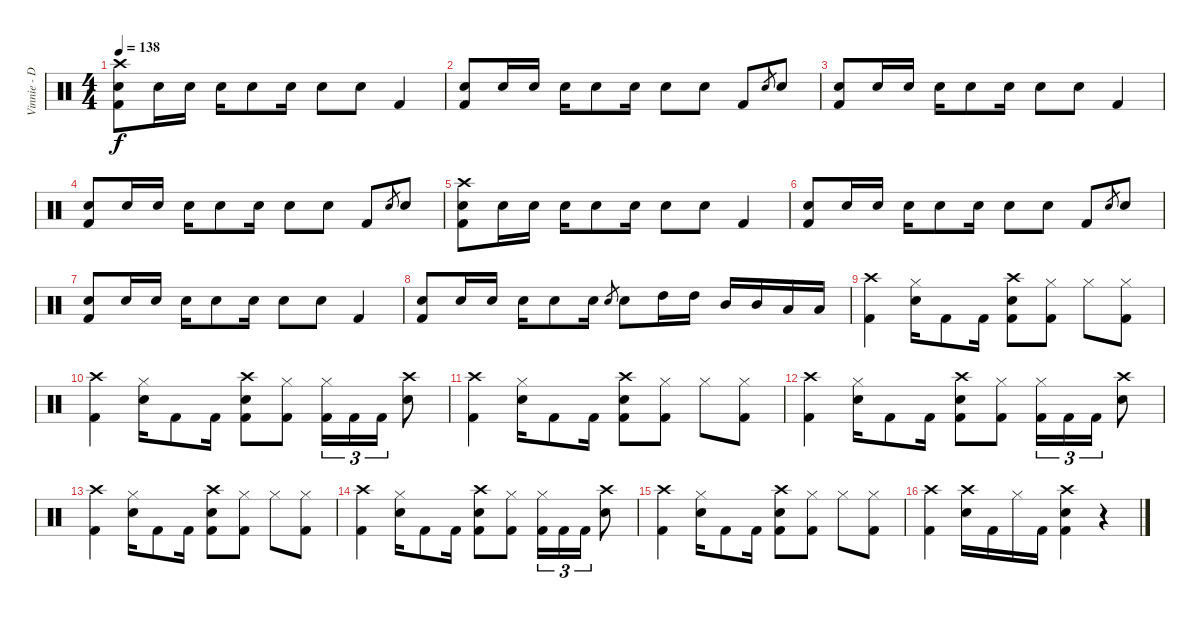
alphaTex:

\track ("Vinnie - Drums" "Vinnie - D") {instrument percussion}
\staff {score}
\articulation defaults
\ts (4 4)
\tempo 138
\clef neutral
\ks c
("Crash high (hit)" "Electric Snare (hit)" "Kick (hit) 2").8{dy f} "Electric Snare (hit)".16 "Electric Snare (hit)".16 "Electric Snare (hit)".16 "Electric Snare (hit)".8 "Electric Snare (hit)".16 "Electric Snare (hit)".8 "Electric Snare (hit)".8 "Kick (hit) 2".4 |
("Electric Snare (hit)" "Kick (hit) 2").8 "Electric Snare (hit)".16 "Electric Snare (hit)".16 "Electric Snare (hit)".16 "Electric Snare (hit)".8 "Electric Snare (hit)".16 "Electric Snare (hit)".8 "Electric Snare (hit)".8 "Kick (hit) 2".8 "Electric Snare (hit)"{sl}.8{gr} "Electric Snare (hit)".8 |
("Electric Snare (hit)" "Kick (hit) 2").8 "Electric Snare (hit)".16 "Electric Snare (hit)".16 "Electric Snare (hit)".16 "Electric Snare (hit)".8 "Electric Snare (hit)".16 "Electric Snare (hit)".8 "Electric Snare (hit)".8 "Kick (hit) 2".4 |
("Electric Snare (hit)" "Kick (hit) 2").8 "Electric Snare (hit)".16 "Electric Snare (hit)".16 "Electric Snare (hit)".16 "Electric Snare (hit)".8 "Electric Snare (hit)".16 "Electric Snare (hit)".8 "Electric Snare (hit)".8 "Kick (hit) 2".8 "Electric Snare (hit)"{sl}.8{gr} "Electric Snare (hit)".8 |
("Crash high (hit)" "Electric Snare (hit)" "Kick (hit) 2").8 "Electric Snare (hit)".16 "Electric Snare (hit)".16 "Electric Snare (hit)".16 "Electric Snare (hit)".8 "Electric Snare (hit)".16 "Electric Snare (hit)".8 "Electric Snare (hit)".8 "Kick (hit) 2".4 |
("Electric Snare (hit)" "Kick (hit) 2").8 "Electric Snare (hit)".16 "Electric Snare (hit)".16 "Electric Snare (hit)".16 "Electric Snare (hit)".8 "Electric Snare (hit)".16 "Electric Snare (hit)".8 "Electric Snare (hit)".8 "Kick (hit) 2".8 "Electric Snare (hit)"{sl}.8{gr} "Electric Snare (hit)".8 |
("Electric Snare (hit)" "Kick (hit) 2").8 "Electric Snare (hit)".16 "Electric Snare (hit)".16 "Electric Snare (hit)".16 "Electric Snare (hit)".8 "Electric Snare (hit)".16 "Electric Snare (hit)".8 "Electric Snare (hit)".8 "Kick (hit) 2".4 |
("Electric Snare (hit)" "Kick (hit) 2").8 "Electric Snare (hit)".16 "Electric Snare (hit)".16 "Electric Snare (hit)".16 "Electric Snare (hit)".8 "Electric Snare (hit)".16 "Electric Snare (hit)".8{gr} "Electric Snare (hit)".8 "High Tom (hit)".16 "High Tom (hit)".16 "Mid Tom (hit)".16 "Mid Tom (hit)".16 "Low Tom (hit)".16 "Low Tom (hit)".16 |
("Crash high (hit)" "Kick (hit) 2").4 ("Hi-Hat (closed)" "Electric Snare (hit)").16 "Kick (hit) 2".8 "Kick (hit) 2".16 ("Crash high (hit)" "Electric Snare (hit)" "Kick (hit) 2").8 ("Hi-Hat (closed)" "Kick (hit) 2").8 "Hi-Hat (closed)".8 ("Hi-Hat (closed)" "Kick (hit) 2").8 |
("Crash high (hit)" "Kick (hit) 2").4 ("Hi-Hat (closed)" "Electric Snare (hit)").16 "Kick (hit) 2".8 "Kick (hit) 2".16 ("Crash high (hit)" "Electric Snare (hit)" "Kick (hit) 2").8 ("Hi-Hat (closed)" "Kick (hit) 2").8 ("Hi-Hat (closed)" "Kick (hit) 2").16{tu (3 2)} "Kick (hit) 2".16{tu (3 2)} "Kick (hit) 2".16{tu (3 2)} ("Crash high (hit)" "Electric Snare (hit)").8 |
("Crash high (hit)" "Kick (hit) 2").4 ("Hi-Hat (closed)" "Electric Snare (hit)").16 "Kick (hit) 2".8 "Kick (hit) 2".16 ("Crash high (hit)" "Electric Snare (hit)" "Kick (hit) 2").8 ("Hi-Hat (closed)" "Kick (hit) 2").8 "Hi-Hat (closed)".8 ("Hi-Hat (closed)" "Kick (hit) 2").8 |
("Crash high (hit)" "Kick (hit) 2").4 ("Hi-Hat (closed)" "Electric Snare (hit)").16 "Kick (hit) 2".8 "Kick (hit) 2".16 ("Crash high (hit)" "Electric Snare (hit)" "Kick (hit) 2").8 ("Hi-Hat (closed)" "Kick (hit) 2").8 ("Hi-Hat (closed)" "Kick (hit) 2").16{tu (3 2)} "Kick (hit) 2".16{tu (3 2)} "Kick (hit) 2".16{tu (3 2)} ("Crash high (hit)" "Electric Snare (hit)").8 |
("Crash high (hit)" "Kick (hit) 2").4 ("Hi-Hat (closed)" "Electric Snare (hit)").16 "Kick (hit) 2".8 "Kick (hit) 2".16 ("Crash high (hit)" "Electric Snare (hit)" "Kick (hit) 2").8 ("Hi-Hat (closed)" "Kick (hit) 2").8 "Hi-Hat (closed)".8 ("Hi-Hat (closed)" "Kick (hit) 2").8 |
("Crash high (hit)" "Kick (hit) 2").4 ("Hi-Hat (closed)" "Electric Snare (hit)").16 "Kick (hit) 2".8 "Kick (hit) 2".16 ("Crash high (hit)" "Electric Snare (hit)" "Kick (hit) 2").8 ("Hi-Hat (closed)" "Kick (hit) 2").8 ("Hi-Hat (closed)" "Kick (hit) 2").16{tu (3 2)} "Kick (hit) 2".16{tu (3 2)} "Kick (hit) 2".16{tu (3 2)} ("Crash high (hit)" "Electric Snare (hit)").8 |
("Crash high (hit)" "Kick (hit) 2").4 ("Hi-Hat (closed)" "Electric Snare (hit)").16 "Kick (hit) 2".8 "Kick (hit) 2".16 ("Crash high (hit)" "Electric Snare (hit)" "Kick (hit) 2").8 ("Hi-Hat (closed)" "Kick (hit) 2").8 "Hi-Hat (closed)".8 ("Hi-Hat (closed)" "Kick (hit) 2").8 |
("Crash high (hit)" "Kick (hit) 2").4 ("Crash high (hit)" "Electric Snare (hit)").16 "Kick (hit) 2".16 "Hi-Hat (closed)".16 "Kick (hit) 2".16 ("Crash high (hit)" "Electric Snare (hit)" "Kick (hit) 2").4 r.4
